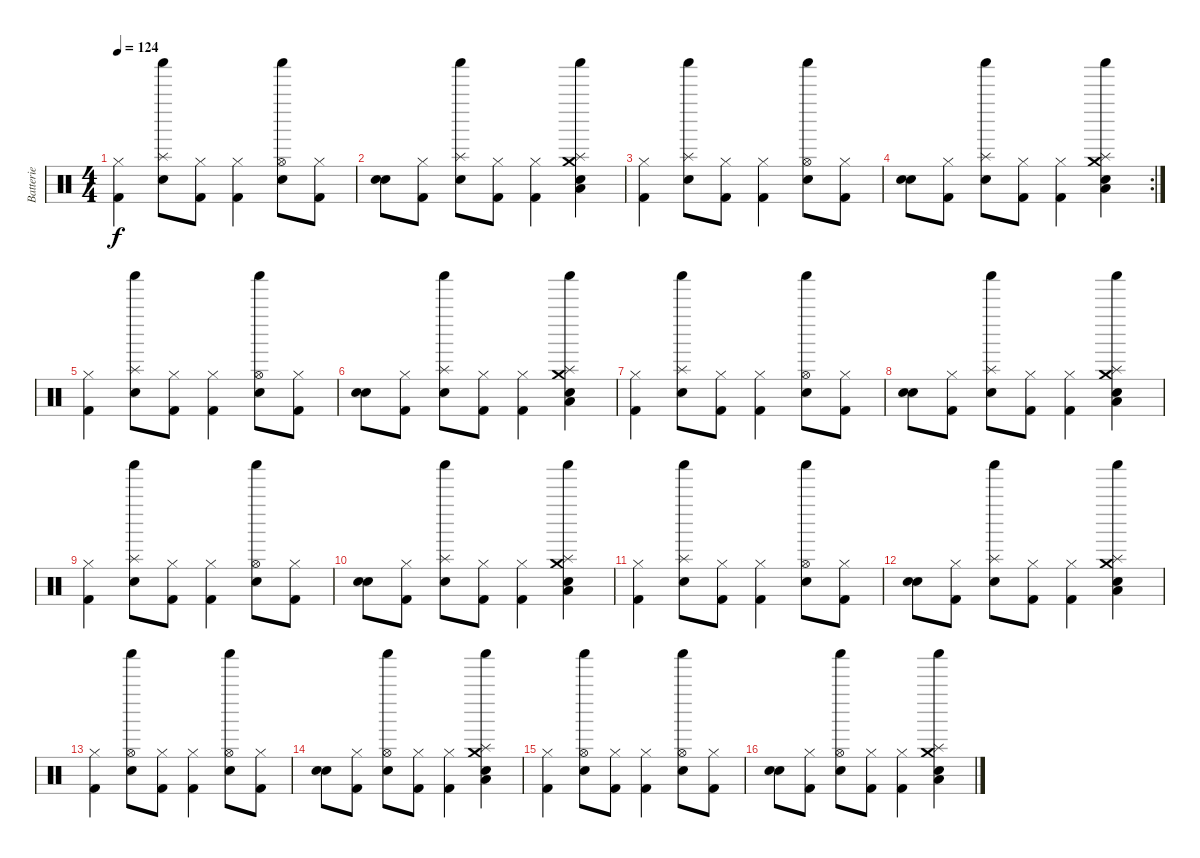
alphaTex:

\track ("Batterie" "Batterie") {instrument percussion}
\staff {score}
\articulation defaults
\ts (4 4)
\tempo 124
\clef neutral
\ks c
("Hi-Hat (closed)" "Kick (hit) 2").4{dy f} ("Shaker (hit)" "Splash (hit)" "Snare (hit) 2").8 ("Hi-Hat (closed)" "Kick (hit) 2").8 ("Hi-Hat (closed)" "Kick (hit) 2").4 ("Shaker (hit)" "Hi-Hat (open)" "Snare (hit) 2").8 ("Hi-Hat (closed)" "Kick (hit) 2").8 |
("Snare (hit)" "Snare (hit)").8 ("Hi-Hat (closed)" "Kick (hit) 2").8 ("Shaker (hit)" "Splash (hit)" "Snare (hit) 2").8 ("Hi-Hat (closed)" "Kick (hit) 2").8 ("Hi-Hat (closed)" "Kick (hit) 2").4 ("Shaker (hit)" "Splash (hit)" "Snare (hit) 2" "Crash medium (hit)" "Low Tom (hit)").4 |
("Hi-Hat (closed)" "Kick (hit) 2").4 ("Shaker (hit)" "Splash (hit)" "Snare (hit) 2").8 ("Hi-Hat (closed)" "Kick (hit) 2").8 ("Hi-Hat (closed)" "Kick (hit) 2").4 ("Shaker (hit)" "Hi-Hat (open)" "Snare (hit) 2").8 ("Hi-Hat (closed)" "Kick (hit) 2").8 |
\rc 2
("Snare (hit)" "Snare (hit)").8 ("Hi-Hat (closed)" "Kick (hit) 2").8 ("Shaker (hit)" "Splash (hit)" "Snare (hit) 2").8 ("Hi-Hat (closed)" "Kick (hit) 2").8 ("Hi-Hat (closed)" "Kick (hit) 2").4 ("Shaker (hit)" "Splash (hit)" "Snare (hit) 2" "Crash medium (hit)" "Low Tom (hit)").4 |
("Hi-Hat (closed)" "Kick (hit) 2").4 ("Shaker (hit)" "Splash (hit)" "Snare (hit) 2").8 ("Hi-Hat (closed)" "Kick (hit) 2").8 ("Hi-Hat (closed)" "Kick (hit) 2").4 ("Shaker (hit)" "Hi-Hat (open)" "Snare (hit) 2").8 ("Hi-Hat (closed)" "Kick (hit) 2").8 |
("Snare (hit)" "Snare (hit)").8 ("Hi-Hat (closed)" "Kick (hit) 2").8 ("Shaker (hit)" "Splash (hit)" "Snare (hit) 2").8 ("Hi-Hat (closed)" "Kick (hit) 2").8 ("Hi-Hat (closed)" "Kick (hit) 2").4 ("Shaker (hit)" "Splash (hit)" "Snare (hit) 2" "Crash medium (hit)" "Low Tom (hit)").4 |
("Hi-Hat (closed)" "Kick (hit) 2").4 ("Shaker (hit)" "Splash (hit)" "Snare (hit) 2").8 ("Hi-Hat (closed)" "Kick (hit) 2").8 ("Hi-Hat (closed)" "Kick (hit) 2").4 ("Shaker (hit)" "Hi-Hat (open)" "Snare (hit) 2").8 ("Hi-Hat (closed)" "Kick (hit) 2").8 |
("Snare (hit)" "Snare (hit)").8 ("Hi-Hat (closed)" "Kick (hit) 2").8 ("Shaker (hit)" "Splash (hit)" "Snare (hit) 2").8 ("Hi-Hat (closed)" "Kick (hit) 2").8 ("Hi-Hat (closed)" "Kick (hit) 2").4 ("Shaker (hit)" "Splash (hit)" "Snare (hit) 2" "Crash medium (hit)" "Low Tom (hit)").4 |
("Hi-Hat (closed)" "Kick (hit) 2").4 ("Shaker (hit)" "Splash (hit)" "Snare (hit) 2").8 ("Hi-Hat (closed)" "Kick (hit) 2").8 ("Hi-Hat (closed)" "Kick (hit) 2").4 ("Shaker (hit)" "Hi-Hat (open)" "Snare (hit) 2").8 ("Hi-Hat (closed)" "Kick (hit) 2").8 |
("Snare (hit)" "Snare (hit)").8 ("Hi-Hat (closed)" "Kick (hit) 2").8 ("Shaker (hit)" "Splash (hit)" "Snare (hit) 2").8 ("Hi-Hat (closed)" "Kick (hit) 2").8 ("Hi-Hat (closed)" "Kick (hit) 2").4 ("Shaker (hit)" "Splash (hit)" "Snare (hit) 2" "Crash medium (hit)" "Low Tom (hit)").4 |
("Hi-Hat (closed)" "Kick (hit) 2").4 ("Shaker (hit)" "Splash (hit)" "Snare (hit) 2").8 ("Hi-Hat (closed)" "Kick (hit) 2").8 ("Hi-Hat (closed)" "Kick (hit) 2").4 ("Shaker (hit)" "Hi-Hat (open)" "Snare (hit) 2").8 ("Hi-Hat (closed)" "Kick (hit) 2").8 |
("Snare (hit)" "Snare (hit)").8 ("Hi-Hat (closed)" "Kick (hit) 2").8 ("Shaker (hit)" "Splash (hit)" "Snare (hit) 2").8 ("Hi-Hat (closed)" "Kick (hit) 2").8 ("Hi-Hat (closed)" "Kick (hit) 2").4 ("Shaker (hit)" "Splash (hit)" "Snare (hit) 2" "Crash medium (hit)" "Low Tom (hit)").4 |
("Hi-Hat (closed)" "Kick (hit) 2").4 ("Shaker (hit)" "Hi-Hat (open)" "Snare (hit) 2").8 ("Hi-Hat (closed)" "Kick (hit) 2").8 ("Hi-Hat (closed)" "Kick (hit) 2").4 ("Shaker (hit)" "Hi-Hat (open)" "Snare (hit) 2").8 ("Hi-Hat (closed)" "Kick (hit) 2").8 |
("Snare (hit)" "Snare (hit)").8 ("Hi-Hat (closed)" "Kick (hit) 2").8 ("Shaker (hit)" "Hi-Hat (open)" "Snare (hit) 2").8 ("Hi-Hat (closed)" "Kick (hit) 2").8 ("Hi-Hat (closed)" "Kick (hit) 2").4 ("Shaker (hit)" "Splash (hit)" "Snare (hit) 2" "Crash medium (hit)" "Low Tom (hit)").4 |
("Hi-Hat (closed)" "Kick (hit) 2").4 ("Shaker (hit)" "Hi-Hat (open)" "Snare (hit) 2").8 ("Hi-Hat (closed)" "Kick (hit) 2").8 ("Hi-Hat (closed)" "Kick (hit) 2").4 ("Shaker (hit)" "Hi-Hat (open)" "Snare (hit) 2").8 ("Hi-Hat (closed)" "Kick (hit) 2").8 |
("Snare (hit)" "Snare (hit)").8 ("Hi-Hat (closed)" "Kick (hit) 2").8 ("Shaker (hit)" "Hi-Hat (open)" "Snare (hit) 2").8 ("Hi-Hat (closed)" "Kick (hit) 2").8 ("Hi-Hat (closed)" "Kick (hit) 2").4 ("Shaker (hit)" "Splash (hit)" "Snare (hit) 2" "Crash medium (hit)" "Low Tom (hit)").4
